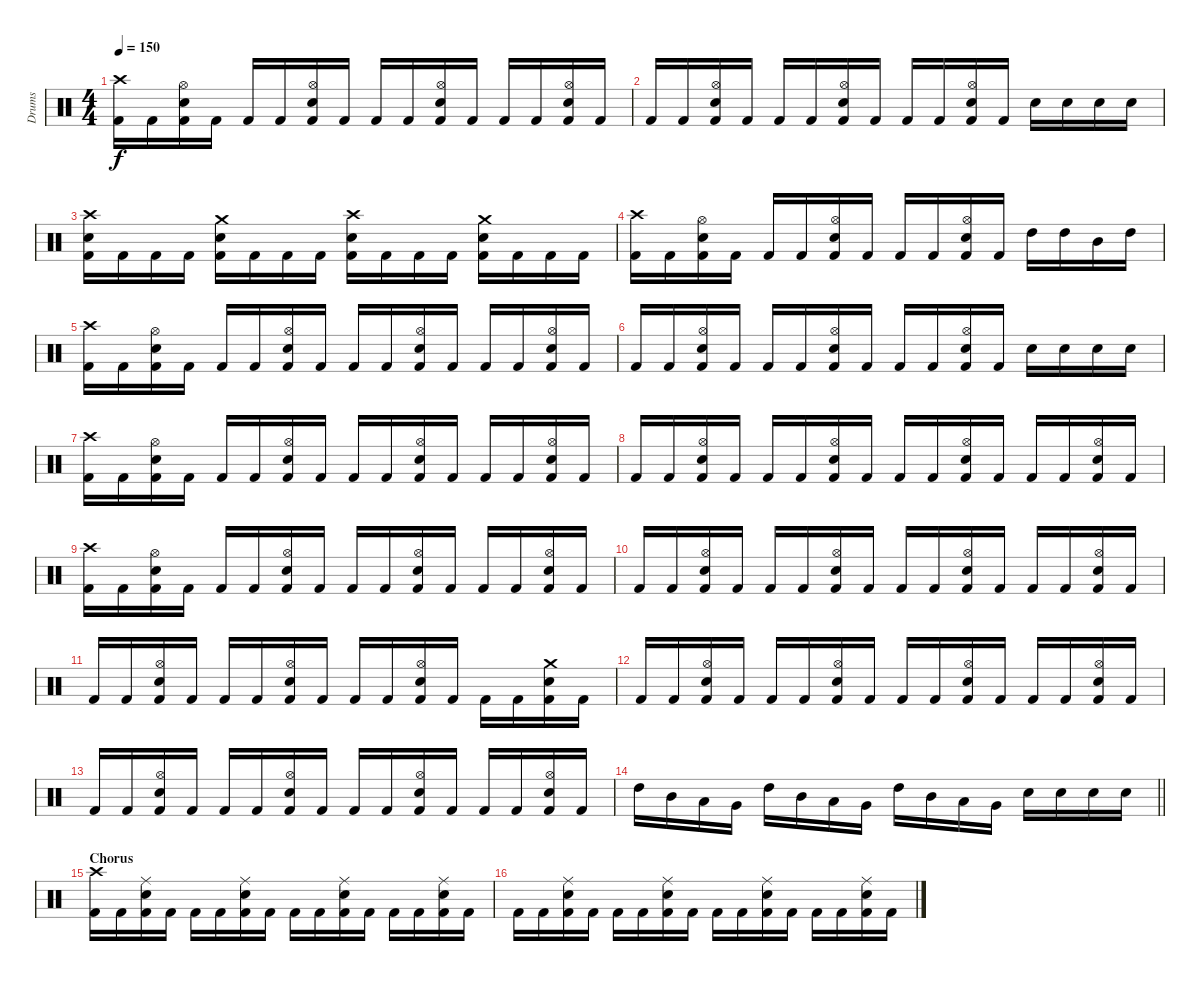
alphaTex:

\track ("Drums" "Drums") {instrument percussion}
\staff {score}
\articulation defaults
\ts (4 4)
\tempo 150
\clef neutral
\ks c
("Crash high (hit)" "Kick (hit) 2").16{dy f} "Kick (hit) 2".16 ("Hi-Hat (open)" "Snare (hit) 2" "Kick (hit) 2").16 "Kick (hit) 2".16 "Kick (hit) 2".16 "Kick (hit) 2".16 ("Hi-Hat (open)" "Snare (hit) 2" "Kick (hit) 2").16 "Kick (hit) 2".16 "Kick (hit) 2".16 "Kick (hit) 2".16 ("Hi-Hat (open)" "Snare (hit) 2" "Kick (hit) 2").16 "Kick (hit) 2".16 "Kick (hit) 2".16 "Kick (hit) 2".16 ("Hi-Hat (open)" "Snare (hit) 2" "Kick (hit) 2").16 "Kick (hit) 2".16 |
"Kick (hit) 2".16 "Kick (hit) 2".16 ("Hi-Hat (open)" "Snare (hit) 2" "Kick (hit) 2").16 "Kick (hit) 2".16 "Kick (hit) 2".16 "Kick (hit) 2".16 ("Hi-Hat (open)" "Snare (hit) 2" "Kick (hit) 2").16 "Kick (hit) 2".16 "Kick (hit) 2".16 "Kick (hit) 2".16 ("Hi-Hat (open)" "Snare (hit) 2" "Kick (hit) 2").16 "Kick (hit) 2".16 "Snare (hit) 2".16 "Snare (hit) 2".16 "Snare (hit) 2".16 "Snare (hit) 2".16 |
("Crash high (hit)" "Snare (hit) 2" "Kick (hit) 2").16 "Kick (hit) 2".16 "Kick (hit) 2".16 "Kick (hit) 2".16 ("Crash medium (hit)" "Snare (hit) 2" "Kick (hit) 2").16 "Kick (hit) 2".16 "Kick (hit) 2".16 "Kick (hit) 2".16 ("Crash high (hit)" "Snare (hit) 2" "Kick (hit) 2").16 "Kick (hit) 2".16 "Kick (hit) 2".16 "Kick (hit) 2".16 ("Crash medium (hit)" "Snare (hit) 2" "Kick (hit) 2").16 "Kick (hit) 2".16 "Kick (hit) 2".16 "Kick (hit) 2".16 |
("Crash high (hit)" "Kick (hit) 2").16 "Kick (hit) 2".16 ("Hi-Hat (open)" "Snare (hit) 2" "Kick (hit) 2").16 "Kick (hit) 2".16 "Kick (hit) 2".16 "Kick (hit) 2".16 ("Hi-Hat (open)" "Snare (hit) 2" "Kick (hit) 2").16 "Kick (hit) 2".16 "Kick (hit) 2".16 "Kick (hit) 2".16 ("Hi-Hat (open)" "Snare (hit) 2" "Kick (hit) 2").16 "Kick (hit) 2".16 "High Tom (hit)".16 "High Tom (hit)".16 "Mid Tom (hit)".16 "High Tom (hit)".16 |
("Crash high (hit)" "Kick (hit) 2").16 "Kick (hit) 2".16 ("Hi-Hat (open)" "Snare (hit) 2" "Kick (hit) 2").16 "Kick (hit) 2".16 "Kick (hit) 2".16 "Kick (hit) 2".16 ("Hi-Hat (open)" "Snare (hit) 2" "Kick (hit) 2").16 "Kick (hit) 2".16 "Kick (hit) 2".16 "Kick (hit) 2".16 ("Hi-Hat (open)" "Snare (hit) 2" "Kick (hit) 2").16 "Kick (hit) 2".16 "Kick (hit) 2".16 "Kick (hit) 2".16 ("Hi-Hat (open)" "Snare (hit) 2" "Kick (hit) 2").16 "Kick (hit) 2".16 |
"Kick (hit) 2".16 "Kick (hit) 2".16 ("Hi-Hat (open)" "Snare (hit) 2" "Kick (hit) 2").16 "Kick (hit) 2".16 "Kick (hit) 2".16 "Kick (hit) 2".16 ("Hi-Hat (open)" "Snare (hit) 2" "Kick (hit) 2").16 "Kick (hit) 2".16 "Kick (hit) 2".16 "Kick (hit) 2".16 ("Hi-Hat (open)" "Snare (hit) 2" "Kick (hit) 2").16 "Kick (hit) 2".16 "Snare (hit) 2".16 "Snare (hit) 2".16 "Snare (hit) 2".16 "Snare (hit) 2".16 |
("Crash high (hit)" "Kick (hit) 2").16 "Kick (hit) 2".16 ("Hi-Hat (open)" "Snare (hit) 2" "Kick (hit) 2").16 "Kick (hit) 2".16 "Kick (hit) 2".16 "Kick (hit) 2".16 ("Hi-Hat (open)" "Snare (hit) 2" "Kick (hit) 2").16 "Kick (hit) 2".16 "Kick (hit) 2".16 "Kick (hit) 2".16 ("Hi-Hat (open)" "Snare (hit) 2" "Kick (hit) 2").16 "Kick (hit) 2".16 "Kick (hit) 2".16 "Kick (hit) 2".16 ("Hi-Hat (open)" "Snare (hit) 2" "Kick (hit) 2").16 "Kick (hit) 2".16 |
"Kick (hit) 2".16 "Kick (hit) 2".16 ("Hi-Hat (open)" "Snare (hit) 2" "Kick (hit) 2").16 "Kick (hit) 2".16 "Kick (hit) 2".16 "Kick (hit) 2".16 ("Hi-Hat (open)" "Snare (hit) 2" "Kick (hit) 2").16 "Kick (hit) 2".16 "Kick (hit) 2".16 "Kick (hit) 2".16 ("Hi-Hat (open)" "Snare (hit) 2" "Kick (hit) 2").16 "Kick (hit) 2".16 "Kick (hit) 2".16 "Kick (hit) 2".16 ("Hi-Hat (open)" "Snare (hit) 2" "Kick (hit) 2").16 "Kick (hit) 2".16 |
("Crash high (hit)" "Kick (hit) 2").16 "Kick (hit) 2".16 ("Hi-Hat (open)" "Snare (hit) 2" "Kick (hit) 2").16 "Kick (hit) 2".16 "Kick (hit) 2".16 "Kick (hit) 2".16 ("Hi-Hat (open)" "Snare (hit) 2" "Kick (hit) 2").16 "Kick (hit) 2".16 "Kick (hit) 2".16 "Kick (hit) 2".16 ("Hi-Hat (open)" "Snare (hit) 2" "Kick (hit) 2").16 "Kick (hit) 2".16 "Kick (hit) 2".16 "Kick (hit) 2".16 ("Hi-Hat (open)" "Snare (hit) 2" "Kick (hit) 2").16 "Kick (hit) 2".16 |
"Kick (hit) 2".16 "Kick (hit) 2".16 ("Hi-Hat (open)" "Snare (hit) 2" "Kick (hit) 2").16 "Kick (hit) 2".16 "Kick (hit) 2".16 "Kick (hit) 2".16 ("Hi-Hat (open)" "Snare (hit) 2" "Kick (hit) 2").16 "Kick (hit) 2".16 "Kick (hit) 2".16 "Kick (hit) 2".16 ("Hi-Hat (open)" "Snare (hit) 2" "Kick (hit) 2").16 "Kick (hit) 2".16 "Kick (hit) 2".16 "Kick (hit) 2".16 ("Hi-Hat (open)" "Snare (hit) 2" "Kick (hit) 2").16 "Kick (hit) 2".16 |
"Kick (hit) 2".16 "Kick (hit) 2".16 ("Hi-Hat (open)" "Snare (hit) 2" "Kick (hit) 2").16 "Kick (hit) 2".16 "Kick (hit) 2".16 "Kick (hit) 2".16 ("Hi-Hat (open)" "Snare (hit) 2" "Kick (hit) 2").16 "Kick (hit) 2".16 "Kick (hit) 2".16 "Kick (hit) 2".16 ("Hi-Hat (open)" "Snare (hit) 2" "Kick (hit) 2").16 "Kick (hit) 2".16 "Kick (hit) 2".16 "Kick (hit) 2".16 ("Crash medium (hit)" "Snare (hit) 2" "Kick (hit) 2").16 "Kick (hit) 2".16 |
"Kick (hit) 2".16 "Kick (hit) 2".16 ("Hi-Hat (open)" "Snare (hit) 2" "Kick (hit) 2").16 "Kick (hit) 2".16 "Kick (hit) 2".16 "Kick (hit) 2".16 ("Hi-Hat (open)" "Snare (hit) 2" "Kick (hit) 2").16 "Kick (hit) 2".16 "Kick (hit) 2".16 "Kick (hit) 2".16 ("Hi-Hat (open)" "Snare (hit) 2" "Kick (hit) 2").16 "Kick (hit) 2".16 "Kick (hit) 2".16 "Kick (hit) 2".16 ("Hi-Hat (open)" "Snare (hit) 2" "Kick (hit) 2").16 "Kick (hit) 2".16 |
"Kick (hit) 2".16 "Kick (hit) 2".16 ("Hi-Hat (open)" "Snare (hit) 2" "Kick (hit) 2").16 "Kick (hit) 2".16 "Kick (hit) 2".16 "Kick (hit) 2".16 ("Hi-Hat (open)" "Snare (hit) 2" "Kick (hit) 2").16 "Kick (hit) 2".16 "Kick (hit) 2".16 "Kick (hit) 2".16 ("Hi-Hat (open)" "Snare (hit) 2" "Kick (hit) 2").16 "Kick (hit) 2".16 "Kick (hit) 2".16 "Kick (hit) 2".16 ("Hi-Hat (open)" "Snare (hit) 2" "Kick (hit) 2").16 "Kick (hit) 2".16 |
\barLineRight lightlight "High Tom (hit)".16 "Mid Tom (hit)".16 "Low Tom (hit)".16 "Very Low Tom (hit)".16 "High Tom (hit)".16 "Mid Tom (hit)".16 "Low Tom (hit)".16 "Very Low Tom (hit)".16 "High Tom (hit)".16 "Mid Tom (hit)".16 "Low Tom (hit)".16 "Very Low Tom (hit)".16 "Snare (hit) 2".16 "Snare (hit) 2".16 "Snare (hit) 2".16 "Snare (hit) 2".16
|
\section ("" "Chorus")
("Crash high (hit)" "Kick (hit) 2").16 "Kick (hit) 2".16 ("Ride (middle)" "Snare (hit) 2" "Kick (hit) 2").16 "Kick (hit) 2".16 "Kick (hit) 2".16 "Kick (hit) 2".16 ("Ride (middle)" "Snare (hit) 2" "Kick (hit) 2").16 "Kick (hit) 2".16 "Kick (hit) 2".16 "Kick (hit) 2".16 ("Ride (middle)" "Snare (hit) 2" "Kick (hit) 2").16 "Kick (hit) 2".16 "Kick (hit) 2".16 "Kick (hit) 2".16 ("Ride (middle)" "Snare (hit) 2" "Kick (hit) 2").16 "Kick (hit) 2".16 |
"Kick (hit) 2".16 "Kick (hit) 2".16 ("Ride (middle)" "Snare (hit) 2" "Kick (hit) 2").16 "Kick (hit) 2".16 "Kick (hit) 2".16 "Kick (hit) 2".16 ("Ride (middle)" "Snare (hit) 2" "Kick (hit) 2").16 "Kick (hit) 2".16 "Kick (hit) 2".16 "Kick (hit) 2".16 ("Ride (middle)" "Snare (hit) 2" "Kick (hit) 2").16 "Kick (hit) 2".16 "Kick (hit) 2".16 "Kick (hit) 2".16 ("Ride (middle)" "Snare (hit) 2" "Kick (hit) 2").16 "Kick (hit) 2".16
